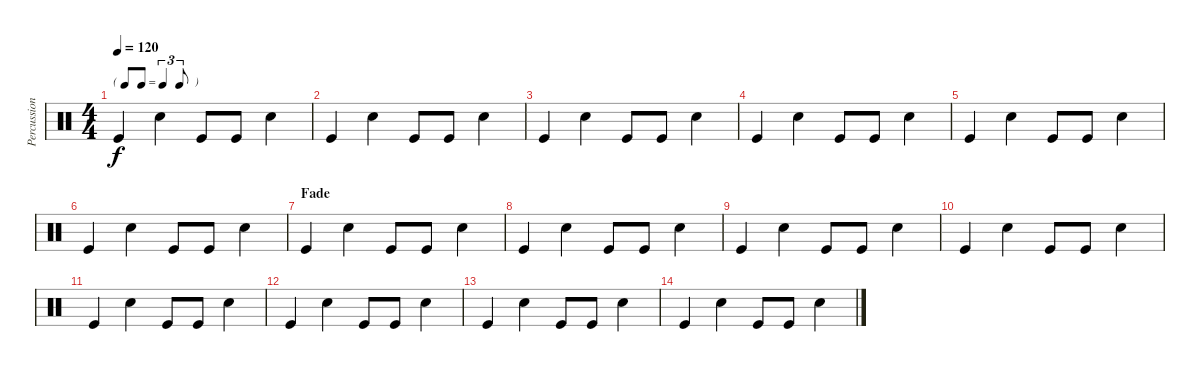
\track ("Percussion" "Percussion") {instrument percussion}
\staff {score}
\articulation defaults
\ts (4 4)
\tf triplet8th
\tempo 120
\clef neutral
\ks c "Kick (hit)".4{dy f} "Snare (hit) 2".4 "Kick (hit)".8 "Kick (hit)".8 "Snare (hit) 2".4
|
"Kick (hit)".4 "Snare (hit) 2".4 "Kick (hit)".8 "Kick (hit)".8 "Snare (hit) 2".4 |
"Kick (hit)".4 "Snare (hit) 2".4 "Kick (hit)".8 "Kick (hit)".8 "Snare (hit) 2".4 |
"Kick (hit)".4 "Snare (hit) 2".4 "Kick (hit)".8 "Kick (hit)".8 "Snare (hit) 2".4 |
"Kick (hit)".4 "Snare (hit) 2".4 "Kick (hit)".8 "Kick (hit)".8 "Snare (hit) 2".4 |
"Kick (hit)".4 "Snare (hit) 2".4 "Kick (hit)".8 "Kick (hit)".8 "Snare (hit) 2".4 |
\section ("" "Fade")
"Kick (hit)".4{volume 12} "Snare (hit) 2".4 "Kick (hit)".8 "Kick (hit)".8 "Snare (hit) 2".4 |
"Kick (hit)".4{volume 11} "Snare (hit) 2".4 "Kick (hit)".8 "Kick (hit)".8 "Snare (hit) 2".4 |
"Kick (hit)".4{volume 10} "Snare (hit) 2".4 "Kick (hit)".8 "Kick (hit)".8 "Snare (hit) 2".4 |
"Kick (hit)".4{volume 8} "Snare (hit) 2".4 "Kick (hit)".8 "Kick (hit)".8 "Snare (hit) 2".4 |
"Kick (hit)".4{volume 6} "Snare (hit) 2".4 "Kick (hit)".8 "Kick (hit)".8 "Snare (hit) 2".4 |
"Kick (hit)".4{volume 4} "Snare (hit) 2".4 "Kick (hit)".8 "Kick (hit)".8 "Snare (hit) 2".4 |
"Kick (hit)".4{volume 2} "Snare (hit) 2".4 "Kick (hit)".8 "Kick (hit)".8 "Snare (hit) 2".4 |
"Kick (hit)".4 "Snare (hit) 2".4 "Kick (hit)".8 "Kick (hit)".8 "Snare (hit) 2".4
